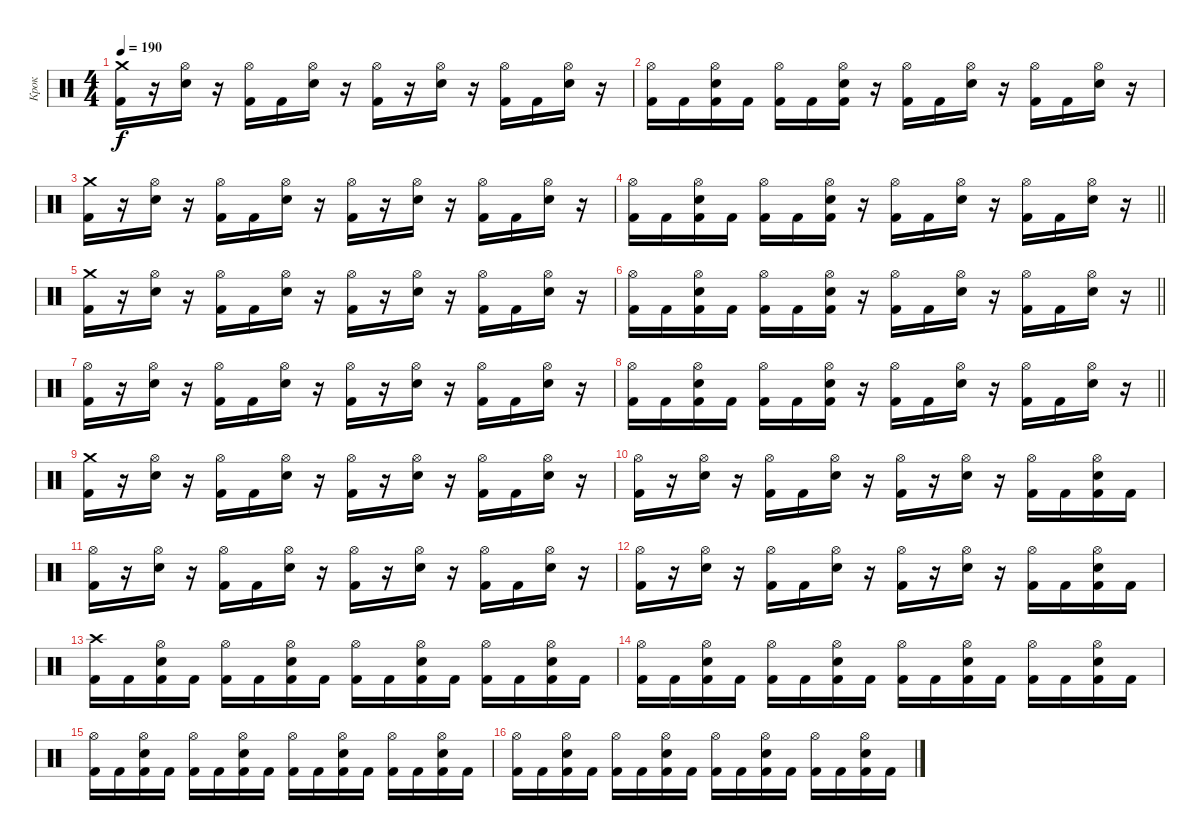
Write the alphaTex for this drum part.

\track ("Крок" "Крок") {instrument percussion}
\staff {score}
\articulation defaults
\ts (4 4)
\tempo 190
\clef neutral
\ks c
("Crash medium (hit)" "Kick (hit) 2").16{dy f} r.16 ("Hi-Hat (open)" "Electric Snare (hit)").16 r.16 ("Hi-Hat (open)" "Kick (hit) 2").16 "Kick (hit) 2".16 ("Hi-Hat (open)" "Electric Snare (hit)").16 r.16 ("Hi-Hat (open)" "Kick (hit) 2").16 r.16 ("Hi-Hat (open)" "Electric Snare (hit)").16 r.16 ("Hi-Hat (open)" "Kick (hit) 2").16 "Kick (hit) 2".16 ("Hi-Hat (open)" "Electric Snare (hit)").16 r.16 |
("Hi-Hat (open)" "Kick (hit) 2").16 "Kick (hit) 2".16 ("Hi-Hat (open)" "Electric Snare (hit)" "Kick (hit) 2").16 "Kick (hit) 2".16 ("Hi-Hat (open)" "Kick (hit) 2").16 "Kick (hit) 2".16 ("Hi-Hat (open)" "Electric Snare (hit)" "Kick (hit) 2").16 r.16 ("Hi-Hat (open)" "Kick (hit) 2").16 "Kick (hit) 2".16 ("Hi-Hat (open)" "Electric Snare (hit)").16 r.16 ("Hi-Hat (open)" "Kick (hit) 2").16 "Kick (hit) 2".16 ("Hi-Hat (open)" "Electric Snare (hit)").16 r.16 |
("Crash medium (hit)" "Kick (hit) 2").16 r.16 ("Hi-Hat (open)" "Electric Snare (hit)").16 r.16 ("Hi-Hat (open)" "Kick (hit) 2").16 "Kick (hit) 2".16 ("Hi-Hat (open)" "Electric Snare (hit)").16 r.16 ("Hi-Hat (open)" "Kick (hit) 2").16 r.16 ("Hi-Hat (open)" "Electric Snare (hit)").16 r.16 ("Hi-Hat (open)" "Kick (hit) 2").16 "Kick (hit) 2".16 ("Hi-Hat (open)" "Electric Snare (hit)").16 r.16 |
\barLineRight lightlight
("Hi-Hat (open)" "Kick (hit) 2").16 "Kick (hit) 2".16 ("Hi-Hat (open)" "Electric Snare (hit)" "Kick (hit) 2").16 "Kick (hit) 2".16 ("Hi-Hat (open)" "Kick (hit) 2").16 "Kick (hit) 2".16 ("Hi-Hat (open)" "Electric Snare (hit)" "Kick (hit) 2").16 r.16 ("Hi-Hat (open)" "Kick (hit) 2").16 "Kick (hit) 2".16 ("Hi-Hat (open)" "Electric Snare (hit)").16 r.16 ("Hi-Hat (open)" "Kick (hit) 2").16 "Kick (hit) 2".16 ("Hi-Hat (open)" "Electric Snare (hit)").16 r.16 |
("Crash medium (hit)" "Kick (hit) 2").16 r.16 ("Hi-Hat (open)" "Electric Snare (hit)").16 r.16 ("Hi-Hat (open)" "Kick (hit) 2").16 "Kick (hit) 2".16 ("Hi-Hat (open)" "Electric Snare (hit)").16 r.16 ("Hi-Hat (open)" "Kick (hit) 2").16 r.16 ("Hi-Hat (open)" "Electric Snare (hit)").16 r.16 ("Hi-Hat (open)" "Kick (hit) 2").16 "Kick (hit) 2".16 ("Hi-Hat (open)" "Electric Snare (hit)").16 r.16 |
\barLineRight lightlight
("Hi-Hat (open)" "Kick (hit) 2").16 "Kick (hit) 2".16 ("Hi-Hat (open)" "Electric Snare (hit)" "Kick (hit) 2").16 "Kick (hit) 2".16 ("Hi-Hat (open)" "Kick (hit) 2").16 "Kick (hit) 2".16 ("Hi-Hat (open)" "Electric Snare (hit)" "Kick (hit) 2").16 r.16 ("Hi-Hat (open)" "Kick (hit) 2").16 "Kick (hit) 2".16 ("Hi-Hat (open)" "Electric Snare (hit)").16 r.16 ("Hi-Hat (open)" "Kick (hit) 2").16 "Kick (hit) 2".16 ("Hi-Hat (open)" "Electric Snare (hit)").16 r.16 |
("Hi-Hat (open)" "Kick (hit) 2").16 r.16 ("Hi-Hat (open)" "Electric Snare (hit)").16 r.16 ("Hi-Hat (open)" "Kick (hit) 2").16 "Kick (hit) 2".16 ("Hi-Hat (open)" "Electric Snare (hit)").16 r.16 ("Hi-Hat (open)" "Kick (hit) 2").16 r.16 ("Hi-Hat (open)" "Electric Snare (hit)").16 r.16 ("Hi-Hat (open)" "Kick (hit) 2").16 "Kick (hit) 2".16 ("Hi-Hat (open)" "Electric Snare (hit)").16 r.16 |
\barLineRight lightlight
("Hi-Hat (open)" "Kick (hit) 2").16 "Kick (hit) 2".16 ("Hi-Hat (open)" "Electric Snare (hit)" "Kick (hit) 2").16 "Kick (hit) 2".16 ("Hi-Hat (open)" "Kick (hit) 2").16 "Kick (hit) 2".16 ("Hi-Hat (open)" "Electric Snare (hit)" "Kick (hit) 2").16 r.16 ("Hi-Hat (open)" "Kick (hit) 2").16 "Kick (hit) 2".16 ("Hi-Hat (open)" "Electric Snare (hit)").16 r.16 ("Hi-Hat (open)" "Kick (hit) 2").16 "Kick (hit) 2".16 ("Hi-Hat (open)" "Electric Snare (hit)").16 r.16 |
("Crash medium (hit)" "Kick (hit) 2").16 r.16 ("Hi-Hat (open)" "Electric Snare (hit)").16 r.16 ("Hi-Hat (open)" "Kick (hit) 2").16 "Kick (hit) 2".16 ("Hi-Hat (open)" "Electric Snare (hit)").16 r.16 ("Hi-Hat (open)" "Kick (hit) 2").16 r.16 ("Hi-Hat (open)" "Electric Snare (hit)").16 r.16 ("Hi-Hat (open)" "Kick (hit) 2").16 "Kick (hit) 2".16 ("Hi-Hat (open)" "Electric Snare (hit)").16 r.16 |
("Hi-Hat (open)" "Kick (hit) 2").16 r.16 ("Hi-Hat (open)" "Electric Snare (hit)").16 r.16 ("Hi-Hat (open)" "Kick (hit) 2").16 "Kick (hit) 2".16 ("Hi-Hat (open)" "Electric Snare (hit)").16 r.16 ("Hi-Hat (open)" "Kick (hit) 2").16 r.16 ("Hi-Hat (open)" "Electric Snare (hit)").16 r.16 ("Hi-Hat (open)" "Kick (hit) 2").16 "Kick (hit) 2".16 ("Hi-Hat (open)" "Electric Snare (hit)" "Kick (hit) 2").16 "Kick (hit) 2".16 |
("Hi-Hat (open)" "Kick (hit) 2").16 r.16 ("Hi-Hat (open)" "Electric Snare (hit)").16 r.16 ("Hi-Hat (open)" "Kick (hit) 2").16 "Kick (hit) 2".16 ("Hi-Hat (open)" "Electric Snare (hit)").16 r.16 ("Hi-Hat (open)" "Kick (hit) 2").16 r.16 ("Hi-Hat (open)" "Electric Snare (hit)").16 r.16 ("Hi-Hat (open)" "Kick (hit) 2").16 "Kick (hit) 2".16 ("Hi-Hat (open)" "Electric Snare (hit)").16 r.16 |
("Hi-Hat (open)" "Kick (hit) 2").16 r.16 ("Hi-Hat (open)" "Electric Snare (hit)").16 r.16 ("Hi-Hat (open)" "Kick (hit) 2").16 "Kick (hit) 2".16 ("Hi-Hat (open)" "Electric Snare (hit)").16 r.16 ("Hi-Hat (open)" "Kick (hit) 2").16 r.16 ("Hi-Hat (open)" "Electric Snare (hit)").16 r.16 ("Hi-Hat (open)" "Kick (hit) 2").16 "Kick (hit) 2".16 ("Hi-Hat (open)" "Electric Snare (hit)" "Kick (hit) 2").16 "Kick (hit) 2".16 |
("Crash high (hit)" "Kick (hit) 2").16 "Kick (hit) 2".16 ("Hi-Hat (open)" "Electric Snare (hit)" "Kick (hit) 2").16 "Kick (hit) 2".16 ("Hi-Hat (open)" "Kick (hit) 2").16 "Kick (hit) 2".16 ("Hi-Hat (open)" "Electric Snare (hit)" "Kick (hit) 2").16 "Kick (hit) 2".16 ("Hi-Hat (open)" "Kick (hit) 2").16 "Kick (hit) 2".16 ("Hi-Hat (open)" "Electric Snare (hit)" "Kick (hit) 2").16 "Kick (hit) 2".16 ("Hi-Hat (open)" "Kick (hit) 2").16 "Kick (hit) 2".16 ("Hi-Hat (open)" "Electric Snare (hit)" "Kick (hit) 2").16 "Kick (hit) 2".16 |
("Hi-Hat (open)" "Kick (hit) 2").16 "Kick (hit) 2".16 ("Hi-Hat (open)" "Electric Snare (hit)" "Kick (hit) 2").16 "Kick (hit) 2".16 ("Hi-Hat (open)" "Kick (hit) 2").16 "Kick (hit) 2".16 ("Hi-Hat (open)" "Electric Snare (hit)" "Kick (hit) 2").16 "Kick (hit) 2".16 ("Hi-Hat (open)" "Kick (hit) 2").16 "Kick (hit) 2".16 ("Hi-Hat (open)" "Electric Snare (hit)" "Kick (hit) 2").16 "Kick (hit) 2".16 ("Hi-Hat (open)" "Kick (hit) 2").16 "Kick (hit) 2".16 ("Hi-Hat (open)" "Electric Snare (hit)" "Kick (hit) 2").16 "Kick (hit) 2".16 |
("Hi-Hat (open)" "Kick (hit) 2").16 "Kick (hit) 2".16 ("Hi-Hat (open)" "Electric Snare (hit)" "Kick (hit) 2").16 "Kick (hit) 2".16 ("Hi-Hat (open)" "Kick (hit) 2").16 "Kick (hit) 2".16 ("Hi-Hat (open)" "Electric Snare (hit)" "Kick (hit) 2").16 "Kick (hit) 2".16 ("Hi-Hat (open)" "Kick (hit) 2").16 "Kick (hit) 2".16 ("Hi-Hat (open)" "Electric Snare (hit)" "Kick (hit) 2").16 "Kick (hit) 2".16 ("Hi-Hat (open)" "Kick (hit) 2").16 "Kick (hit) 2".16 ("Hi-Hat (open)" "Electric Snare (hit)" "Kick (hit) 2").16 "Kick (hit) 2".16 |
("Hi-Hat (open)" "Kick (hit) 2").16 "Kick (hit) 2".16 ("Hi-Hat (open)" "Electric Snare (hit)" "Kick (hit) 2").16 "Kick (hit) 2".16 ("Hi-Hat (open)" "Kick (hit) 2").16 "Kick (hit) 2".16 ("Hi-Hat (open)" "Electric Snare (hit)" "Kick (hit) 2").16 "Kick (hit) 2".16 ("Hi-Hat (open)" "Kick (hit) 2").16 "Kick (hit) 2".16 ("Hi-Hat (open)" "Electric Snare (hit)" "Kick (hit) 2").16 "Kick (hit) 2".16 ("Hi-Hat (open)" "Kick (hit) 2").16 "Kick (hit) 2".16 ("Hi-Hat (open)" "Electric Snare (hit)" "Kick (hit) 2").16 "Kick (hit) 2".16
